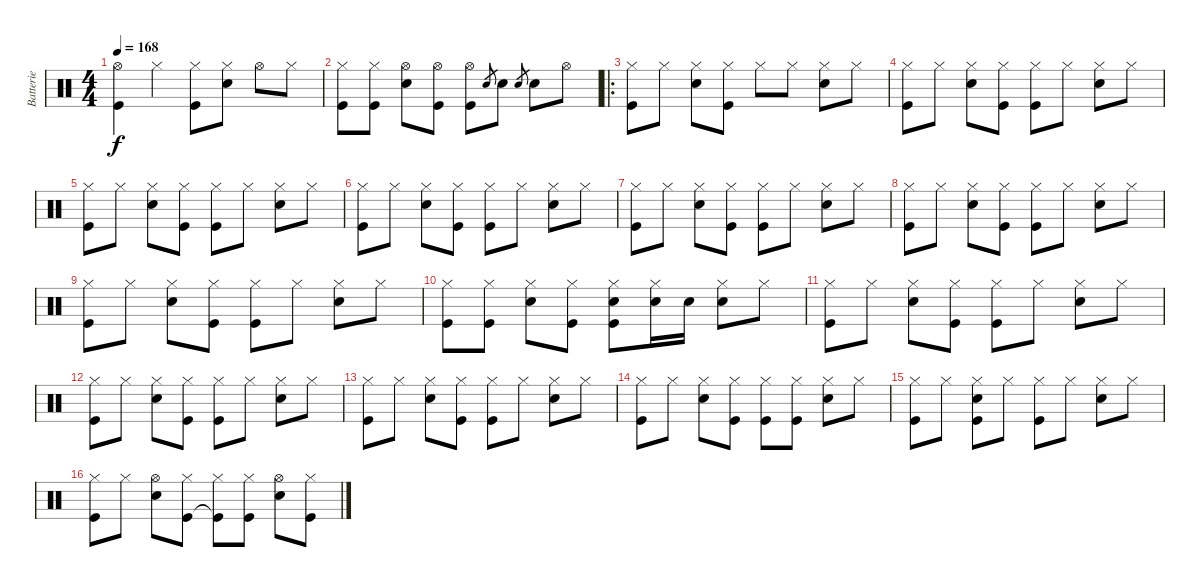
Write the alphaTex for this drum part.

\track ("Batterie" "Batterie") {instrument percussion}
\staff {score}
\articulation defaults
\ts (4 4)
\tempo 168
\clef neutral
\ks c
("Hi-Hat (open)" "Kick (hit)").4{dy f} "Hi-Hat (closed)".4 ("Hi-Hat (closed)" "Kick (hit)").8 ("Hi-Hat (closed)" "Snare (hit) 2").8 "Hi-Hat (open)".8 "Hi-Hat (closed)".8 |
("Hi-Hat (closed)" "Kick (hit)").8 ("Hi-Hat (closed)" "Kick (hit)").8 ("Hi-Hat (open)" "Snare (hit) 2").8 ("Hi-Hat (open)" "Kick (hit)").8 ("Hi-Hat (open)" "Kick (hit)").8 "Snare (hit) 2".8{gr} "Snare (hit) 2".8 "Snare (hit) 2".8{gr} "Snare (hit) 2".8 "Hi-Hat (open)".8 |
\ro
("Hi-Hat (closed)" "Kick (hit)").8 "Hi-Hat (closed)".8 ("Hi-Hat (closed)" "Snare (hit) 2").8 ("Hi-Hat (closed)" "Kick (hit)").8 "Hi-Hat (closed)".8 "Hi-Hat (closed)".8 ("Hi-Hat (closed)" "Snare (hit) 2").8 "Hi-Hat (closed)".8 |
("Hi-Hat (closed)" "Kick (hit)").8 "Hi-Hat (closed)".8 ("Hi-Hat (closed)" "Snare (hit) 2").8 ("Hi-Hat (closed)" "Kick (hit)").8 ("Hi-Hat (closed)" "Kick (hit)").8 "Hi-Hat (closed)".8 ("Hi-Hat (closed)" "Snare (hit) 2").8 "Hi-Hat (closed)".8 |
("Hi-Hat (closed)" "Kick (hit)").8 "Hi-Hat (closed)".8 ("Hi-Hat (closed)" "Snare (hit) 2").8 ("Hi-Hat (closed)" "Kick (hit)").8 ("Hi-Hat (closed)" "Kick (hit)").8 "Hi-Hat (closed)".8 ("Hi-Hat (closed)" "Snare (hit) 2").8 "Hi-Hat (closed)".8 |
("Hi-Hat (closed)" "Kick (hit)").8 "Hi-Hat (closed)".8 ("Hi-Hat (closed)" "Snare (hit) 2").8 ("Hi-Hat (closed)" "Kick (hit)").8 ("Hi-Hat (closed)" "Kick (hit)").8 "Hi-Hat (closed)".8 ("Hi-Hat (closed)" "Snare (hit) 2").8 "Hi-Hat (closed)".8 |
("Hi-Hat (closed)" "Kick (hit)").8 "Hi-Hat (closed)".8 ("Hi-Hat (closed)" "Snare (hit) 2").8 ("Hi-Hat (closed)" "Kick (hit)").8 ("Hi-Hat (closed)" "Kick (hit)").8 "Hi-Hat (closed)".8 ("Hi-Hat (closed)" "Snare (hit) 2").8 "Hi-Hat (closed)".8 |
("Hi-Hat (closed)" "Kick (hit)").8 "Hi-Hat (closed)".8 ("Hi-Hat (closed)" "Snare (hit) 2").8 ("Hi-Hat (closed)" "Kick (hit)").8 ("Hi-Hat (closed)" "Kick (hit)").8 "Hi-Hat (closed)".8 ("Hi-Hat (closed)" "Snare (hit) 2").8 "Hi-Hat (closed)".8 |
("Hi-Hat (closed)" "Kick (hit)").8 "Hi-Hat (closed)".8 ("Hi-Hat (closed)" "Snare (hit) 2").8 ("Hi-Hat (closed)" "Kick (hit)").8 ("Hi-Hat (closed)" "Kick (hit)").8 "Hi-Hat (closed)".8 ("Hi-Hat (closed)" "Snare (hit) 2").8 "Hi-Hat (closed)".8 |
("Hi-Hat (closed)" "Kick (hit)").8 ("Hi-Hat (closed)" "Kick (hit)").8 ("Hi-Hat (closed)" "Snare (hit) 2").8 ("Hi-Hat (closed)" "Kick (hit)").8 ("Hi-Hat (closed)" "Snare (hit) 2" "Kick (hit)").8 ("Hi-Hat (closed)" "Snare (hit) 2").16 "Snare (hit) 2".16 ("Hi-Hat (closed)" "Snare (hit) 2").8 "Hi-Hat (closed)".8 |
("Hi-Hat (closed)" "Kick (hit)").8 "Hi-Hat (closed)".8 ("Hi-Hat (closed)" "Snare (hit) 2").8 ("Hi-Hat (closed)" "Kick (hit)").8 ("Hi-Hat (closed)" "Kick (hit)").8 "Hi-Hat (closed)".8 ("Hi-Hat (closed)" "Snare (hit) 2").8 "Hi-Hat (closed)".8 |
("Hi-Hat (closed)" "Kick (hit)").8 "Hi-Hat (closed)".8 ("Hi-Hat (closed)" "Snare (hit) 2").8 ("Hi-Hat (closed)" "Kick (hit)").8 ("Hi-Hat (closed)" "Kick (hit)").8 "Hi-Hat (closed)".8 ("Hi-Hat (closed)" "Snare (hit) 2").8 "Hi-Hat (closed)".8 |
("Hi-Hat (closed)" "Kick (hit)").8 "Hi-Hat (closed)".8 ("Hi-Hat (closed)" "Snare (hit) 2").8 ("Hi-Hat (closed)" "Kick (hit)").8 ("Hi-Hat (closed)" "Kick (hit)").8 "Hi-Hat (closed)".8 ("Hi-Hat (closed)" "Snare (hit) 2").8 "Hi-Hat (closed)".8 |
("Hi-Hat (closed)" "Kick (hit)").8 "Hi-Hat (closed)".8 ("Hi-Hat (closed)" "Snare (hit) 2").8 ("Hi-Hat (closed)" "Kick (hit)").8 ("Hi-Hat (closed)" "Kick (hit)").8 ("Hi-Hat (closed)" "Kick (hit)").8 ("Hi-Hat (closed)" "Snare (hit) 2").8 "Hi-Hat (closed)".8 |
("Hi-Hat (closed)" "Kick (hit)").8 "Hi-Hat (closed)".8 ("Hi-Hat (closed)" "Kick (hit)" "Snare (hit) 2").8 "Hi-Hat (closed)".8 ("Hi-Hat (closed)" "Kick (hit)").8 "Hi-Hat (closed)".8 ("Hi-Hat (closed)" "Snare (hit) 2").8 "Hi-Hat (closed)".8 |
("Hi-Hat (closed)" "Kick (hit)").8 "Hi-Hat (closed)".8 ("Hi-Hat (open)" "Snare (hit) 2").8 ("Hi-Hat (closed)" "Kick (hit)").8 ("Hi-Hat (closed)" "Kick (hit)"{t}).8 ("Hi-Hat (closed)" "Kick (hit)").8 ("Hi-Hat (open)" "Snare (hit) 2").8 ("Hi-Hat (closed)" "Kick (hit)").8
